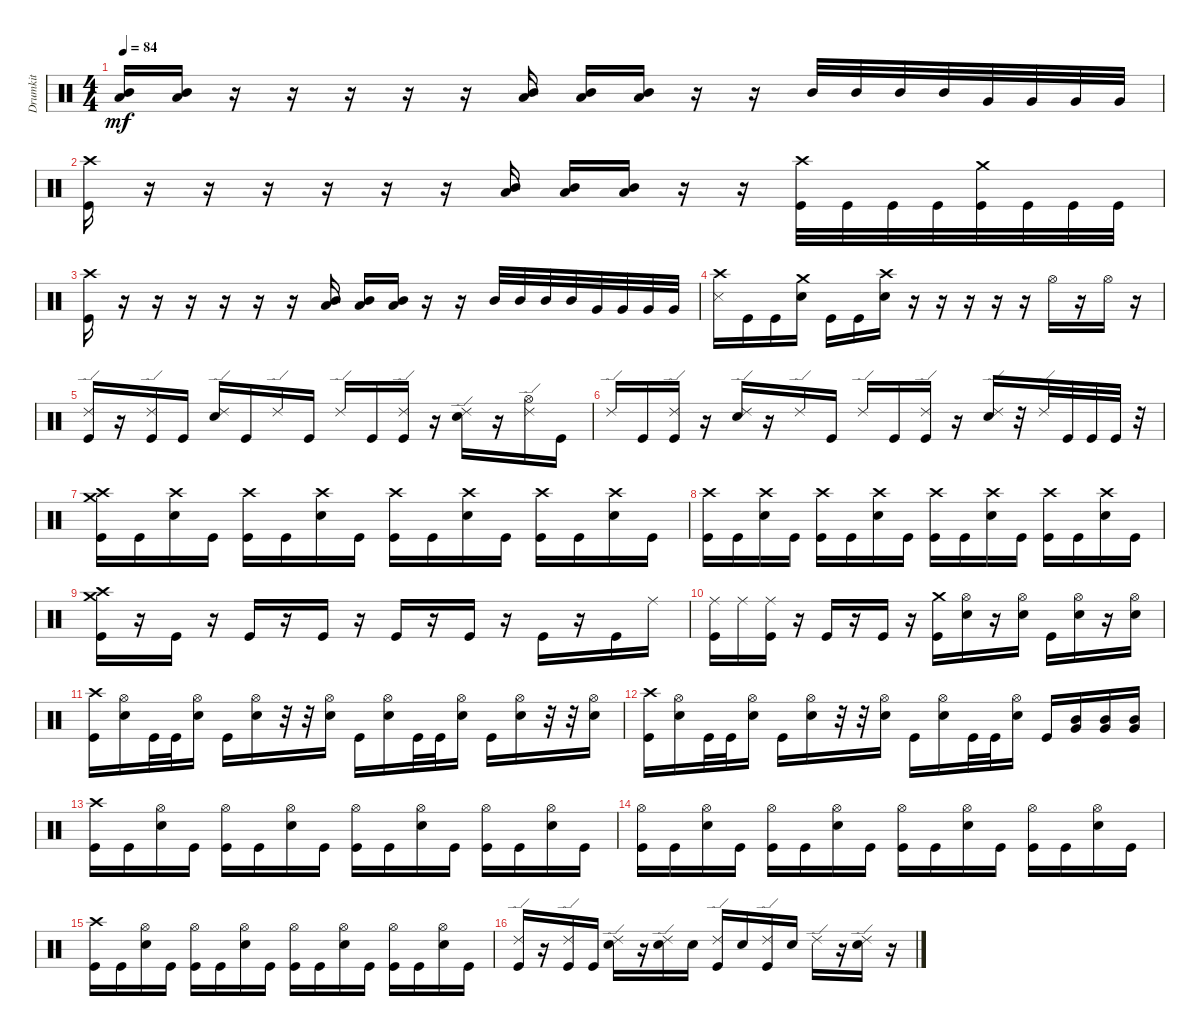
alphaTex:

\track ("Drumkit" "Drumkit") {instrument percussion}
\staff {score}
\articulation defaults
\ts (4 4)
\tempo 84
\clef neutral
\ks c
("Low Floor Tom (hit)" "Mid Tom (hit)").16{dy mf} ("Low Floor Tom (hit)" "Mid Tom (hit)").16 r.16 r.16 r.16 r.16 r.16 ("Low Floor Tom (hit)" "Mid Tom (hit)").16 ("Low Floor Tom (hit)" "Mid Tom (hit)").16 ("Low Floor Tom (hit)" "Mid Tom (hit)").16 r.16 r.16 "Mid Tom (hit)".32 "Mid Tom (hit)".32 "Mid Tom (hit)".32 "Mid Tom (hit)".32 "Very Low Tom (hit)".32 "Very Low Tom (hit)".32 "Very Low Tom (hit)".32 "Very Low Tom (hit)".32 |
("Kick (hit)" "Crash high (hit)").16 r.16 r.16 r.16 r.16 r.16 r.16 ("Low Floor Tom (hit)" "Mid Tom (hit)").16 ("Low Floor Tom (hit)" "Mid Tom (hit)").16 ("Low Floor Tom (hit)" "Mid Tom (hit)").16 r.16 r.16 ("Kick (hit)" "Crash high (hit)").32 "Kick (hit)".32 "Kick (hit)".32 "Kick (hit)".32 ("Kick (hit)" "Crash medium (hit)").32 "Kick (hit)".32 "Kick (hit)".32 "Kick (hit)".32 |
("Kick (hit)" "Crash high (hit)").16 r.16 r.16 r.16 r.16 r.16 r.16 ("Low Floor Tom (hit)" "Mid Tom (hit)").16 ("Low Floor Tom (hit)" "Mid Tom (hit)").16 ("Low Floor Tom (hit)" "Mid Tom (hit)").16 r.16 r.16 "Mid Tom (hit)".32 "Mid Tom (hit)".32 "Mid Tom (hit)".32 "Mid Tom (hit)".32 "Very Low Tom (hit)".32 "Very Low Tom (hit)".32 "Very Low Tom (hit)".32 "Very Low Tom (hit)".32 |
("Crash high (hit)" "Snare (side stick) 3").16 "Kick (hit)".16 "Kick (hit)".16 ("Crash medium (hit)" "Snare (hit) 2").16 "Kick (hit)".16 "Kick (hit)".16 ("Crash high (hit)" "Snare (hit) 2").16 r.16 r.16 r.16 r.16 r.16 "Hi-Hat (open)".16 r.16 "Hi-Hat (open)".16 r.16 |
("Kick (hit)" "Ride (edge) 2").16 r.16 ("Ride (edge) 2" "Kick (hit)").16 "Kick (hit)".16 ("Ride (edge) 2" "Snare (hit) 2").16 "Kick (hit)".16 "Ride (edge) 2".16 "Kick (hit)".16 "Ride (edge) 2".16 "Kick (hit)".16 ("Ride (edge) 2" "Kick (hit)").16 r.16 ("Ride (edge) 2" "Snare (hit) 2").16 r.16 ("Ride (edge) 2" "Hi-Hat (open)").16 "Kick (hit)".16 |
"Ride (edge) 2".16 "Kick (hit)".16 ("Ride (edge) 2" "Kick (hit)").16 r.16 ("Ride (edge) 2" "Snare (hit) 2").16 r.16 "Ride (edge) 2".16 "Kick (hit)".16 "Ride (edge) 2".16 "Kick (hit)".16 ("Ride (edge) 2" "Kick (hit)").16 r.16 ("Ride (edge) 2" "Snare (hit) 2").16 r.32 "Ride (edge) 2".32 "Kick (hit)".32 "Kick (hit)".32 "Kick (hit)".32 r.32 |
("Kick (hit)" "Crash high (hit)" "Crash medium (hit)").16 "Kick (hit)".16 ("Snare (hit) 2" "Crash high (hit)").16 "Kick (hit)".16 ("Kick (hit)" "Crash high (hit)").16 "Kick (hit)".16 ("Snare (hit) 2" "Crash high (hit)").16 "Kick (hit)".16 ("Kick (hit)" "Crash high (hit)").16 "Kick (hit)".16 ("Snare (hit) 2" "Crash high (hit)").16 "Kick (hit)".16 ("Kick (hit)" "Crash high (hit)").16 "Kick (hit)".16 ("Snare (hit) 2" "Crash high (hit)").16 "Kick (hit)".16 |
("Kick (hit)" "Crash high (hit)").16 "Kick (hit)".16 ("Snare (hit) 2" "Crash high (hit)").16 "Kick (hit)".16 ("Kick (hit)" "Crash high (hit)").16 "Kick (hit)".16 ("Snare (hit) 2" "Crash high (hit)").16 "Kick (hit)".16 ("Kick (hit)" "Crash high (hit)").16 "Kick (hit)".16 ("Snare (hit) 2" "Crash high (hit)").16 "Kick (hit)".16 ("Kick (hit)" "Crash high (hit)").16 "Kick (hit)".16 ("Snare (hit) 2" "Crash high (hit)").16 "Kick (hit)".16 |
("Kick (hit)" "Crash high (hit)" "Crash medium (hit)").16 r.16 "Kick (hit)".16 r.16 "Kick (hit)".16 r.16 "Kick (hit)".16 r.16 "Kick (hit)".16 r.16 "Kick (hit)".16 r.16 "Kick (hit)".16 r.16 "Kick (hit)".16 "Ride (middle)".16 |
("Kick (hit)" "Ride (middle)").16 "Ride (middle)".16 ("Kick (hit)" "Ride (middle)").16 r.16 "Kick (hit)".16 r.16 "Kick (hit)".16 r.16 ("Kick (hit)" "Crash medium (hit)").16 ("Hi-Hat (open)" "Snare (hit) 2").16 r.16 ("Hi-Hat (open)" "Snare (hit) 2").16 "Kick (hit)".16 ("Hi-Hat (open)" "Snare (hit) 2").16 r.16 ("Hi-Hat (open)" "Snare (hit) 2").16 |
("Kick (hit)" "Crash high (hit)").16 ("Hi-Hat (open)" "Snare (hit) 2").16 "Kick (hit)".32 "Kick (hit)".32 ("Hi-Hat (open)" "Snare (hit) 2").16 "Kick (hit)".16 ("Hi-Hat (open)" "Snare (hit) 2").16 r.32 r.32 ("Hi-Hat (open)" "Snare (hit) 2").16 "Kick (hit)".16 ("Hi-Hat (open)" "Snare (hit) 2").16 "Kick (hit)".32 "Kick (hit)".32 ("Hi-Hat (open)" "Snare (hit) 2").16 "Kick (hit)".16 ("Hi-Hat (open)" "Snare (hit) 2").16 r.32 r.32 ("Hi-Hat (open)" "Snare (hit) 2").16 |
("Kick (hit)" "Crash high (hit)").16 ("Hi-Hat (open)" "Snare (hit) 2").16 "Kick (hit)".32 "Kick (hit)".32 ("Hi-Hat (open)" "Snare (hit) 2").16 "Kick (hit)".16 ("Hi-Hat (open)" "Snare (hit) 2").16 r.32 r.32 ("Hi-Hat (open)" "Snare (hit) 2").16 "Kick (hit)".16 ("Hi-Hat (open)" "Snare (hit) 2").16 "Kick (hit)".32 "Kick (hit)".32 ("Hi-Hat (open)" "Snare (hit) 2").16 "Kick (hit)".16 ("Very Low Tom (hit)" "Mid Tom (hit)").16 ("Very Low Tom (hit)" "Mid Tom (hit)").16 ("Very Low Tom (hit)" "Mid Tom (hit)").16 |
("Kick (hit)" "Crash high (hit)").16 "Kick (hit)".16 ("Hi-Hat (open)" "Snare (hit) 2").16 "Kick (hit)".16 ("Kick (hit)" "Hi-Hat (open)").16 "Kick (hit)".16 ("Hi-Hat (open)" "Snare (hit) 2").16 "Kick (hit)".16 ("Kick (hit)" "Hi-Hat (open)").16 "Kick (hit)".16 ("Hi-Hat (open)" "Snare (hit) 2").16 "Kick (hit)".16 ("Kick (hit)" "Hi-Hat (open)").16 "Kick (hit)".16 ("Snare (hit) 2" "Hi-Hat (open)").16 "Kick (hit)".16 |
("Kick (hit)" "Hi-Hat (open)").16 "Kick (hit)".16 ("Snare (hit) 2" "Hi-Hat (open)").16 "Kick (hit)".16 ("Kick (hit)" "Hi-Hat (open)").16 "Kick (hit)".16 ("Snare (hit) 2" "Hi-Hat (open)").16 "Kick (hit)".16 ("Kick (hit)" "Hi-Hat (open)").16 "Kick (hit)".16 ("Snare (hit) 2" "Hi-Hat (open)").16 "Kick (hit)".16 ("Kick (hit)" "Hi-Hat (open)").16 "Kick (hit)".16 ("Snare (hit) 2" "Hi-Hat (open)").16 "Kick (hit)".16 |
("Kick (hit)" "Crash high (hit)").16 "Kick (hit)".16 ("Snare (hit) 2" "Hi-Hat (open)").16 "Kick (hit)".16 ("Kick (hit)" "Hi-Hat (open)").16 "Kick (hit)".16 ("Snare (hit) 2" "Hi-Hat (open)").16 "Kick (hit)".16 ("Kick (hit)" "Hi-Hat (open)").16 "Kick (hit)".16 ("Snare (hit) 2" "Hi-Hat (open)").16 "Kick (hit)".16 ("Kick (hit)" "Hi-Hat (open)").16 "Kick (hit)".16 ("Snare (hit) 2" "Hi-Hat (open)").16 "Kick (hit)".16 |
("Kick (hit)" "Ride (edge) 2").16 r.16 ("Kick (hit)" "Ride (edge) 2").16 "Kick (hit)".16 ("Ride (edge) 2" "Snare (hit) 2").16 r.16 ("Ride (edge) 2" "Snare (hit) 2").16 "Snare (hit) 2".16 ("Ride (edge) 2" "Kick (hit)").16 "Snare (hit) 2".16 ("Ride (edge) 2" "Kick (hit)").16 "Snare (hit) 2".16 "Ride (edge) 2".16 r.16 ("Ride (edge) 2" "Snare (hit) 2").16 r.16
